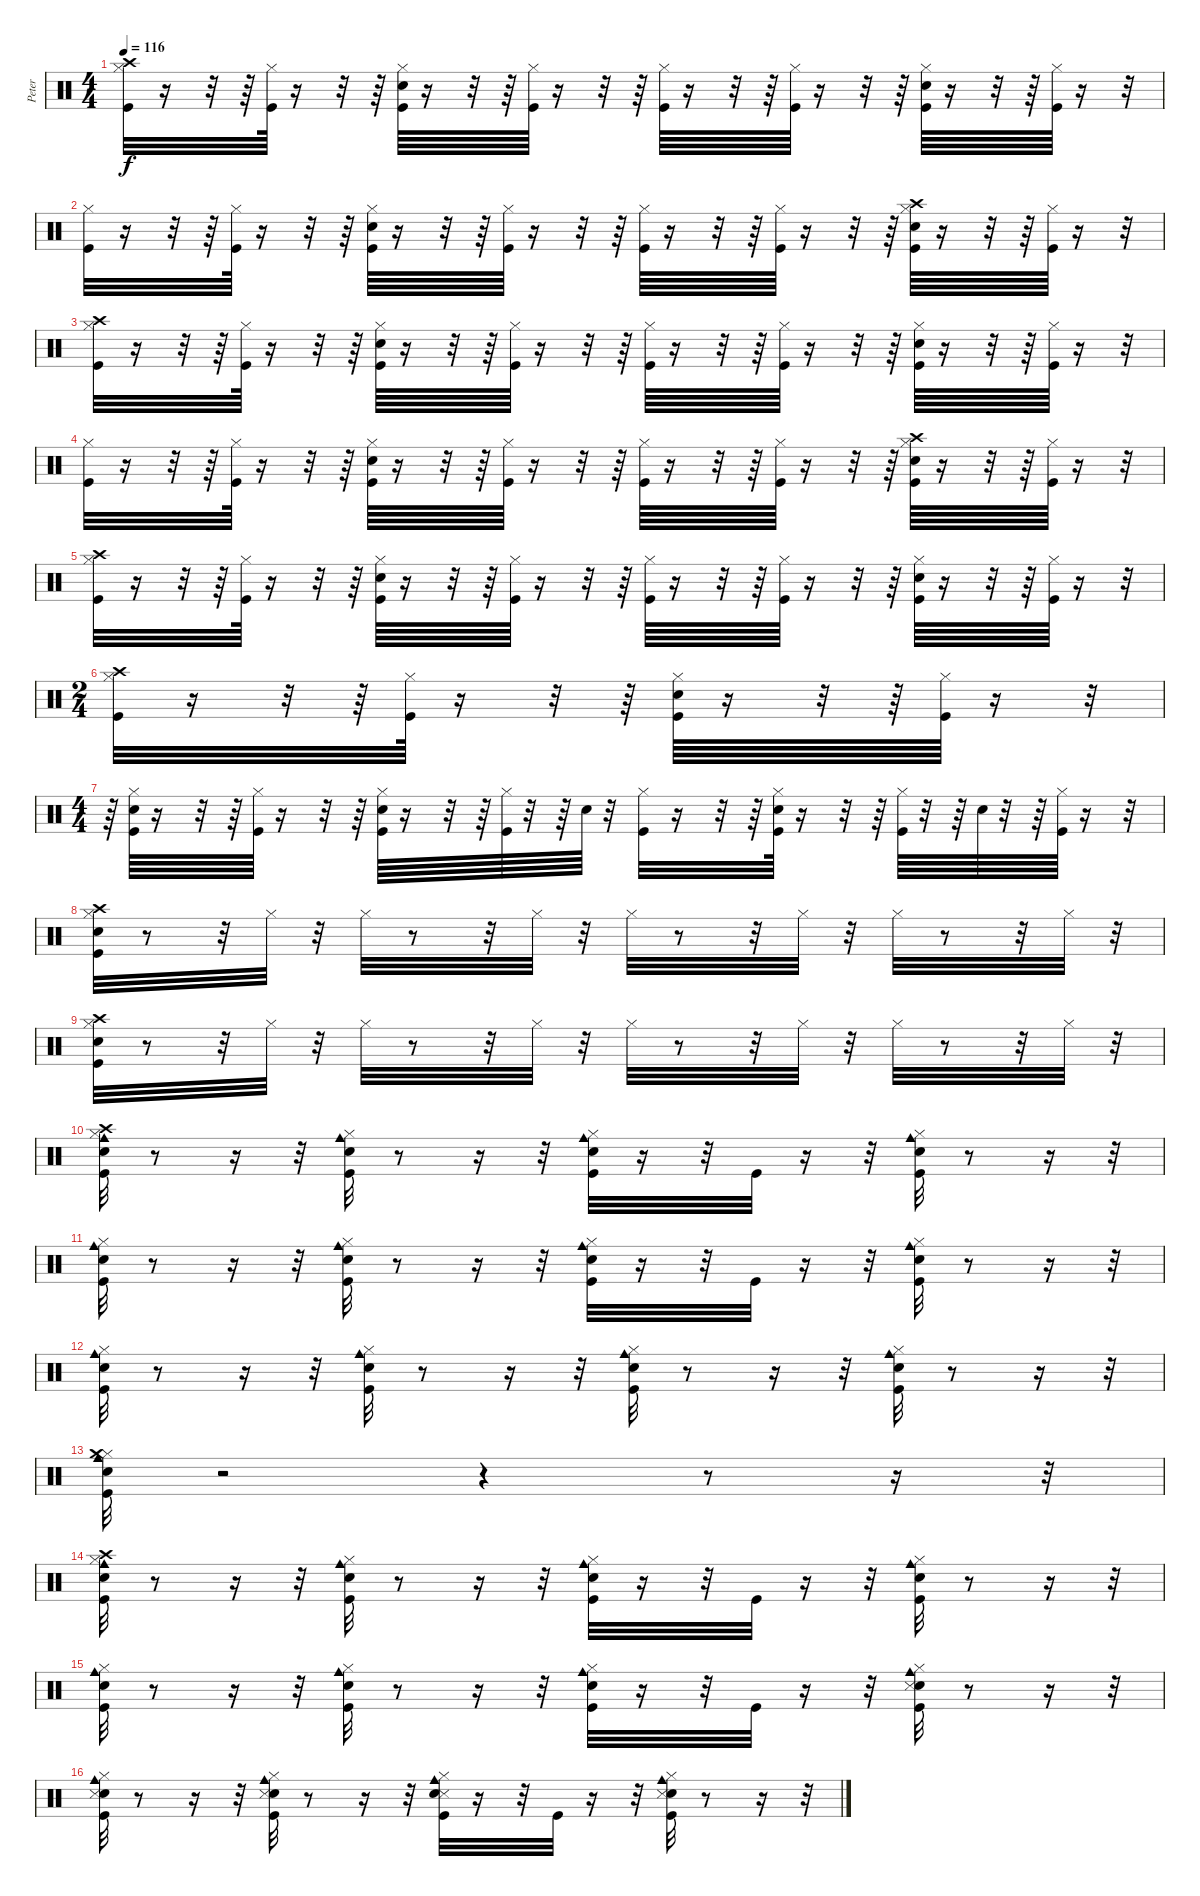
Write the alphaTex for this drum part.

\track ("Peter" "Peter") {instrument percussion}
\staff {score}
\articulation defaults
\ts (4 4)
\tempo 116
\clef neutral
\ks c
("Hi-Hat (closed)" "Kick (hit)" "Crash high (hit)").32{dy f} r.16 r.32 r.64 ("Kick (hit)" "Hi-Hat (closed)").64 r.16 r.32 r.64 ("Kick (hit)" "Snare (hit) 2" "Hi-Hat (closed)").64 r.16 r.32 r.64 ("Kick (hit)" "Hi-Hat (closed)").64 r.16 r.32 r.64 ("Kick (hit)" "Hi-Hat (closed)").64 r.16 r.32 r.64 ("Kick (hit)" "Hi-Hat (closed)").64 r.16 r.32 r.64 ("Kick (hit)" "Snare (hit) 2" "Hi-Hat (closed)").64 r.16 r.32 r.64 ("Kick (hit)" "Hi-Hat (closed)").64 r.16 r.32 |
("Kick (hit)" "Hi-Hat (closed)").32 r.16 r.32 r.64 ("Kick (hit)" "Hi-Hat (closed)").64 r.16 r.32 r.64 ("Kick (hit)" "Snare (hit) 2" "Hi-Hat (closed)").64 r.16 r.32 r.64 ("Kick (hit)" "Hi-Hat (closed)").64 r.16 r.32 r.64 ("Kick (hit)" "Hi-Hat (closed)").64 r.16 r.32 r.64 ("Kick (hit)" "Hi-Hat (closed)").64 r.16 r.32 r.64 ("Crash high (hit)" "Snare (hit) 2" "Kick (hit)" "Hi-Hat (closed)").64 r.16 r.32 r.64 ("Kick (hit)" "Hi-Hat (closed)").64 r.16 r.32 |
("Crash high (hit)" "Kick (hit)" "Hi-Hat (closed)").32 r.16 r.32 r.64 ("Hi-Hat (closed)" "Kick (hit)").64 r.16 r.32 r.64 ("Hi-Hat (closed)" "Snare (hit) 2" "Kick (hit)").64 r.16 r.32 r.64 ("Hi-Hat (closed)" "Kick (hit)").64 r.16 r.32 r.64 ("Hi-Hat (closed)" "Kick (hit)").64 r.16 r.32 r.64 ("Hi-Hat (closed)" "Kick (hit)").64 r.16 r.32 r.64 ("Hi-Hat (closed)" "Snare (hit) 2" "Kick (hit)").64 r.16 r.32 r.64 ("Hi-Hat (closed)" "Kick (hit)").64 r.16 r.32 |
("Hi-Hat (closed)" "Kick (hit)").32 r.16 r.32 r.64 ("Hi-Hat (closed)" "Kick (hit)").64 r.16 r.32 r.64 ("Hi-Hat (closed)" "Snare (hit) 2" "Kick (hit)").64 r.16 r.32 r.64 ("Hi-Hat (closed)" "Kick (hit)").64 r.16 r.32 r.64 ("Kick (hit)" "Hi-Hat (closed)").64 r.16 r.32 r.64 ("Kick (hit)" "Hi-Hat (closed)").64 r.16 r.32 r.64 ("Crash high (hit)" "Kick (hit)" "Snare (hit) 2" "Hi-Hat (closed)").64 r.16 r.32 r.64 ("Kick (hit)" "Hi-Hat (closed)").64 r.16 r.32 |
("Hi-Hat (closed)" "Kick (hit)" "Crash high (hit)").32 r.16 r.32 r.64 ("Kick (hit)" "Hi-Hat (closed)").64 r.16 r.32 r.64 ("Kick (hit)" "Snare (hit) 2" "Hi-Hat (closed)").64 r.16 r.32 r.64 ("Kick (hit)" "Hi-Hat (closed)").64 r.16 r.32 r.64 ("Kick (hit)" "Hi-Hat (closed)").64 r.16 r.32 r.64 ("Kick (hit)" "Hi-Hat (closed)").64 r.16 r.32 r.64 ("Kick (hit)" "Snare (hit) 2" "Hi-Hat (closed)").64 r.16 r.32 r.64 ("Kick (hit)" "Hi-Hat (closed)").64 r.16 r.32 |
\ts (2 4)
("Crash high (hit)" "Kick (hit)" "Hi-Hat (closed)").32 r.16 r.32 r.64 ("Kick (hit)" "Hi-Hat (closed)").64 r.16 r.32 r.64 ("Snare (hit) 2" "Kick (hit)" "Hi-Hat (closed)").64 r.16 r.32 r.64 ("Hi-Hat (closed)" "Kick (hit)").64 r.16 r.32 |
\ts (4 4)
r.64 ("Hi-Hat (closed)" "Snare (hit) 2" "Kick (hit)").64 r.16 r.32 r.64 ("Hi-Hat (closed)" "Kick (hit)").64 r.16 r.32 r.64 ("Hi-Hat (closed)" "Snare (hit) 2" "Kick (hit)").64 r.16 r.32 r.64 ("Hi-Hat (closed)" "Kick (hit)").64 r.32 r.64 "Snare (hit) 2".64 r.32 ("Kick (hit)" "Hi-Hat (closed)").32 r.16 r.32 r.64 ("Kick (hit)" "Hi-Hat (closed)" "Snare (hit) 2").64 r.16 r.32 r.64 ("Kick (hit)" "Hi-Hat (closed)").64 r.32 r.64 "Snare (hit) 2".64 r.32 r.64 ("Kick (hit)" "Hi-Hat (closed)").64 r.16 r.32 |
("Kick (hit)" "Snare (hit) 2" "Hi-Hat (closed)" "Crash high (hit)").32 r.8 r.32 "Hi-Hat (closed)".32 r.32 "Hi-Hat (closed)".32 r.8 r.32 "Hi-Hat (closed)".32 r.32 "Hi-Hat (closed)".32 r.8 r.32 "Hi-Hat (closed)".32 r.32 "Hi-Hat (closed)".32 r.8 r.32 "Hi-Hat (closed)".32 r.32 |
("Hi-Hat (closed)" "Snare (hit) 2" "Kick (hit)" "Crash high (hit)").32 r.8 r.32 "Hi-Hat (closed)".32 r.32 "Hi-Hat (closed)".32 r.8 r.32 "Hi-Hat (closed)".32 r.32 "Hi-Hat (closed)".32 r.8 r.32 "Hi-Hat (closed)".32 r.32 "Hi-Hat (closed)".32 r.8 r.32 "Hi-Hat (closed)".32 r.32 |
("Cowbell medium (hit)" "Kick (hit)" "Snare (hit) 2" "Hi-Hat (closed)" "Crash high (hit)").32 r.8 r.16 r.32 ("Cowbell medium (hit)" "Snare (hit) 2" "Hi-Hat (closed)" "Kick (hit)").32 r.8 r.16 r.32 ("Cowbell medium (hit)" "Snare (hit) 2" "Hi-Hat (closed)" "Kick (hit)").32 r.16 r.32 "Kick (hit)".32 r.16 r.32 ("Cowbell medium (hit)" "Snare (hit) 2" "Hi-Hat (closed)" "Kick (hit)").32 r.8 r.16 r.32 |
("Cowbell medium (hit)" "Snare (hit) 2" "Hi-Hat (closed)" "Kick (hit)").32 r.8 r.16 r.32 ("Cowbell medium (hit)" "Snare (hit) 2" "Hi-Hat (closed)" "Kick (hit)").32 r.8 r.16 r.32 ("Cowbell medium (hit)" "Hi-Hat (closed)" "Snare (hit) 2" "Kick (hit)").32 r.16 r.32 "Kick (hit)".32 r.16 r.32 ("Cowbell medium (hit)" "Kick (hit)" "Snare (hit) 2" "Hi-Hat (closed)").32 r.8 r.16 r.32 |
("Cowbell medium (hit)" "Hi-Hat (closed)" "Snare (hit) 2" "Kick (hit)").32 r.8 r.16 r.32 ("Cowbell medium (hit)" "Hi-Hat (closed)" "Snare (hit) 2" "Kick (hit)").32 r.8 r.16 r.32 ("Cowbell medium (hit)" "Snare (hit) 2" "Hi-Hat (closed)" "Kick (hit)").32 r.8 r.16 r.32 ("Cowbell medium (hit)" "Kick (hit)" "Snare (hit) 2" "Hi-Hat (closed)").32 r.8 r.16 r.32 |
("Kick (hit)" "Snare (hit) 2" "Hi-Hat (closed)" "Crash medium (hit)" "Cowbell medium (hit)").32 r.2 r.4 r.8 r.16 r.32 |
("Crash high (hit)" "Cowbell medium (hit)" "Snare (hit) 2" "Hi-Hat (closed)" "Kick (hit)").32 r.8 r.16 r.32 ("Cowbell medium (hit)" "Snare (hit) 2" "Hi-Hat (closed)" "Kick (hit)").32 r.8 r.16 r.32 ("Cowbell medium (hit)" "Hi-Hat (closed)" "Snare (hit) 2" "Kick (hit)").32 r.16 r.32 "Kick (hit)".32 r.16 r.32 ("Cowbell medium (hit)" "Snare (hit) 2" "Hi-Hat (closed)" "Kick (hit)").32 r.8 r.16 r.32 |
("Cowbell medium (hit)" "Hi-Hat (closed)" "Snare (hit) 2" "Kick (hit)").32 r.8 r.16 r.32 ("Cowbell medium (hit)" "Snare (hit) 2" "Hi-Hat (closed)" "Kick (hit)").32 r.8 r.16 r.32 ("Cowbell medium (hit)" "Hi-Hat (closed)" "Snare (hit) 2" "Kick (hit)").32 r.16 r.32 "Kick (hit)".32 r.16 r.32 ("Cowbell medium (hit)" "Hi-Hat (closed)" "Snare (hit) 2" "Snare (side stick) 3" "Kick (hit)").32 r.8 r.16 r.32 |
("Cowbell medium (hit)" "Snare (hit) 2" "Snare (side stick) 3" "Hi-Hat (closed)" "Kick (hit)").32 r.8 r.16 r.32 ("Cowbell medium (hit)" "Hi-Hat (closed)" "Snare (hit) 2" "Snare (side stick) 3" "Kick (hit)").32 r.8 r.16 r.32 ("Cowbell medium (hit)" "Snare (side stick) 3" "Snare (hit) 2" "Hi-Hat (closed)" "Kick (hit)").32 r.16 r.32 "Kick (hit)".32 r.16 r.32 ("Cowbell medium (hit)" "Hi-Hat (closed)" "Snare (hit) 2" "Snare (side stick) 3" "Kick (hit)").32 r.8 r.16 r.32
